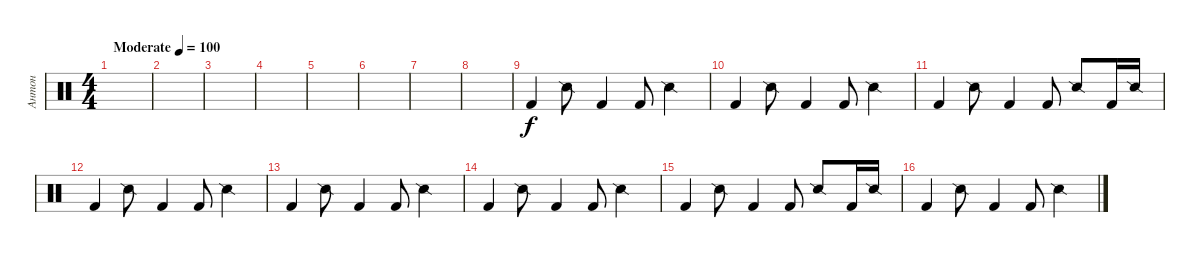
\track ("Антон" "Антон") {instrument percussion}
\staff {score}
\articulation defaults
\ts (4 4)
\tempo (100 "Moderate")
\clef neutral
\ks c
|
|
|
|
|
|
|
|
"Kick (hit) 2".4 "Snare (side stick) 2".8 "Kick (hit) 2".4 "Kick (hit) 2".8 "Snare (side stick) 2".4 |
"Kick (hit) 2".4 "Snare (side stick) 2".8 "Kick (hit) 2".4 "Kick (hit) 2".8 "Snare (side stick) 2".4 |
"Kick (hit) 2".4 "Snare (side stick) 2".8 "Kick (hit) 2".4 "Kick (hit) 2".8 "Snare (side stick) 2".8 "Kick (hit) 2".16 "Snare (side stick) 2".16 |
"Kick (hit) 2".4 "Snare (side stick) 2".8 "Kick (hit) 2".4 "Kick (hit) 2".8 "Snare (side stick) 2".4 |
"Kick (hit) 2".4 "Snare (side stick) 2".8 "Kick (hit) 2".4 "Kick (hit) 2".8 "Snare (side stick) 2".4 |
"Kick (hit) 2".4 "Snare (side stick) 2".8 "Kick (hit) 2".4 "Kick (hit) 2".8 "Snare (side stick) 2".4 |
"Kick (hit) 2".4 "Snare (side stick) 2".8 "Kick (hit) 2".4 "Kick (hit) 2".8 "Snare (side stick) 2".8 "Kick (hit) 2".16 "Snare (side stick) 2".16 |
"Kick (hit) 2".4 "Snare (side stick) 2".8 "Kick (hit) 2".4 "Kick (hit) 2".8 "Snare (side stick) 2".4
